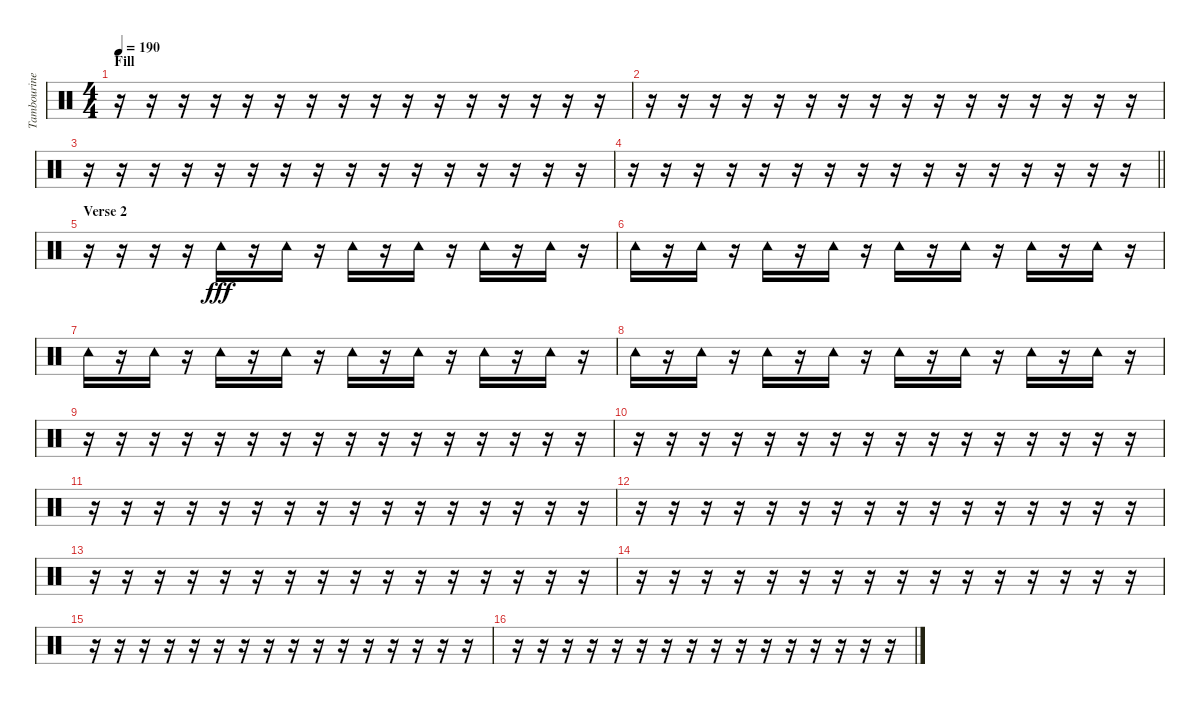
\track ("Tambourine" "Tambourine") {instrument percussion}
\staff {score}
\articulation defaults
\ts (4 4)
\section ("" "Fill")
\tempo 190
\clef neutral
\ks c
r.16{dy fff} r.16 r.16 r.16 r.16 r.16 r.16 r.16 r.16 r.16 r.16 r.16 r.16 r.16 r.16 r.16 |
r.16 r.16 r.16 r.16 r.16 r.16 r.16 r.16 r.16 r.16 r.16 r.16 r.16 r.16 r.16 r.16 |
r.16 r.16 r.16 r.16 r.16 r.16 r.16 r.16 r.16 r.16 r.16 r.16 r.16 r.16 r.16 r.16 |
\barLineRight lightlight
r.16 r.16 r.16 r.16 r.16 r.16 r.16 r.16 r.16 r.16 r.16 r.16 r.16 r.16 r.16 r.16 |
\section ("" "Verse 2")
r.16 r.16 r.16 r.16 "Tambourine (hit)".16 r.16 "Tambourine (hit)".16 r.16 "Tambourine (hit)".16 r.16 "Tambourine (hit)".16 r.16 "Tambourine (hit)".16 r.16 "Tambourine (hit)".16 r.16 |
"Tambourine (hit)".16 r.16 "Tambourine (hit)".16 r.16 "Tambourine (hit)".16 r.16 "Tambourine (hit)".16 r.16 "Tambourine (hit)".16 r.16 "Tambourine (hit)".16 r.16 "Tambourine (hit)".16 r.16 "Tambourine (hit)".16 r.16 |
"Tambourine (hit)".16 r.16 "Tambourine (hit)".16 r.16 "Tambourine (hit)".16 r.16 "Tambourine (hit)".16 r.16 "Tambourine (hit)".16 r.16 "Tambourine (hit)".16 r.16 "Tambourine (hit)".16 r.16 "Tambourine (hit)".16 r.16 |
"Tambourine (hit)".16 r.16 "Tambourine (hit)".16 r.16 "Tambourine (hit)".16 r.16 "Tambourine (hit)".16 r.16 "Tambourine (hit)".16 r.16 "Tambourine (hit)".16 r.16 "Tambourine (hit)".16 r.16 "Tambourine (hit)".16 r.16 |
r.16 r.16 r.16 r.16 r.16 r.16 r.16 r.16 r.16 r.16 r.16 r.16 r.16 r.16 r.16 r.16 |
r.16 r.16 r.16 r.16 r.16 r.16 r.16 r.16 r.16 r.16 r.16 r.16 r.16 r.16 r.16 r.16 |
r.16 r.16 r.16 r.16 r.16 r.16 r.16 r.16 r.16 r.16 r.16 r.16 r.16 r.16 r.16 r.16 |
r.16 r.16 r.16 r.16 r.16 r.16 r.16 r.16 r.16 r.16 r.16 r.16 r.16 r.16 r.16 r.16 |
r.16 r.16 r.16 r.16 r.16 r.16 r.16 r.16 r.16 r.16 r.16 r.16 r.16 r.16 r.16 r.16 |
r.16 r.16 r.16 r.16 r.16 r.16 r.16 r.16 r.16 r.16 r.16 r.16 r.16 r.16 r.16 r.16 |
r.16 r.16 r.16 r.16 r.16 r.16 r.16 r.16 r.16 r.16 r.16 r.16 r.16 r.16 r.16 r.16 |
r.16 r.16 r.16 r.16 r.16 r.16 r.16 r.16 r.16 r.16 r.16 r.16 r.16 r.16 r.16 r.16
